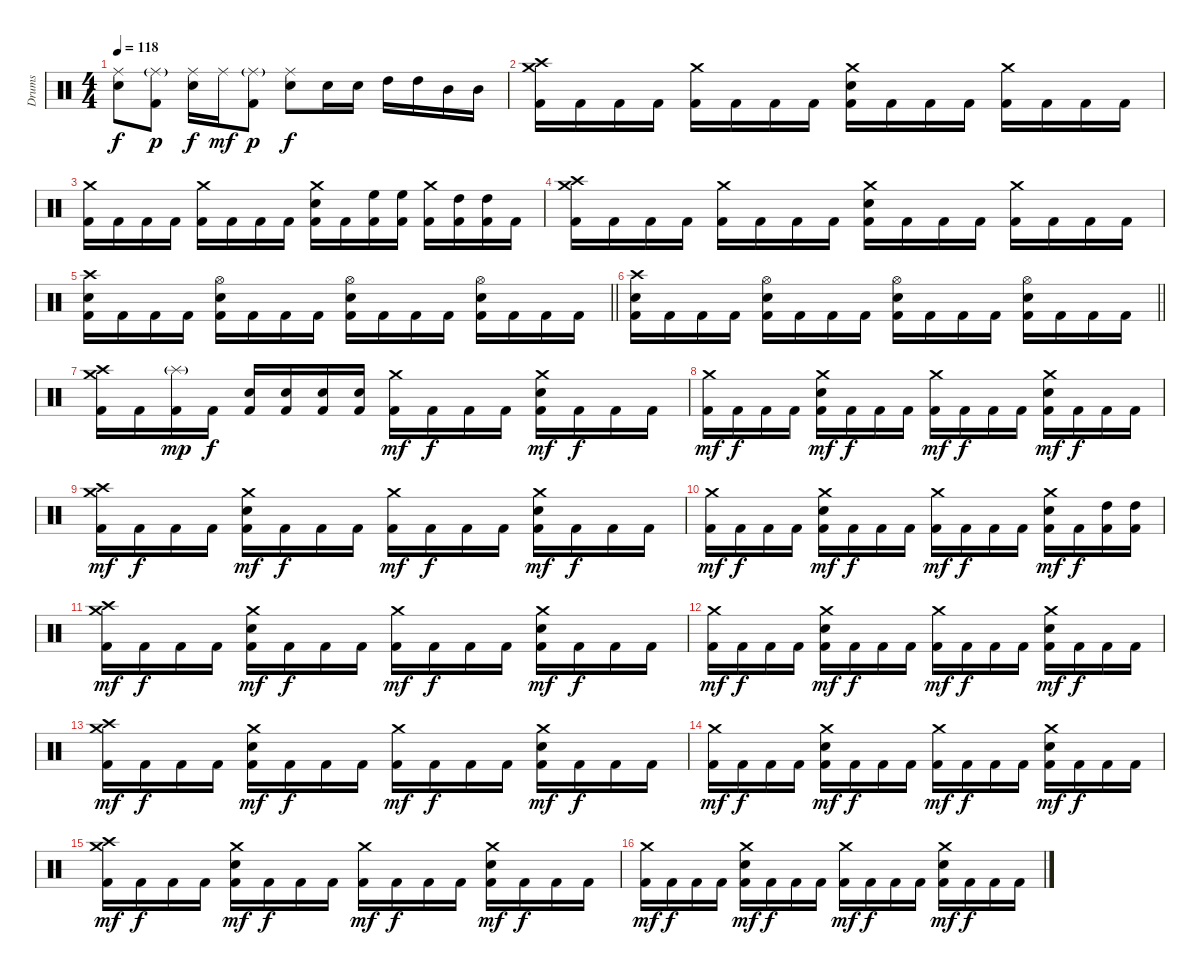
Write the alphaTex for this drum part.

\track ("Drums" "Drums") {instrument percussion}
\staff {score}
\articulation defaults
\ts (4 4)
\tempo 118
\clef neutral
\ks c
("Ride (middle)" "Electric Snare (hit)").8{dy f} ("Ride (middle)"{g} "Kick (hit) 2").8{dy p} ("Ride (middle)" "Electric Snare (hit)").16{dy f} "Ride (middle)".16{dy mf} ("Ride (middle)"{g} "Kick (hit) 2").8{dy p} ("Ride (middle)" "Electric Snare (hit)").8{dy f} "Electric Snare (hit)".16 "Electric Snare (hit)".16 "High Tom (hit)".16 "High Tom (hit)".16 "Mid Tom (hit)".16 "Mid Tom (hit)".16 |
("Crash high (hit)" "Crash medium (hit)" "Kick (hit) 2").16 "Kick (hit) 2".16 "Kick (hit) 2".16 "Kick (hit) 2".16 ("Crash medium (hit)" "Kick (hit) 2").16 "Kick (hit) 2".16 "Kick (hit) 2".16 "Kick (hit) 2".16 ("Crash medium (hit)" "Electric Snare (hit)" "Kick (hit) 2").16 "Kick (hit) 2".16 "Kick (hit) 2".16 "Kick (hit) 2".16 ("Crash medium (hit)" "Kick (hit) 2").16 "Kick (hit) 2".16 "Kick (hit) 2".16 "Kick (hit) 2".16 |
("Crash medium (hit)" "Kick (hit) 2").16 "Kick (hit) 2".16 "Kick (hit) 2".16 "Kick (hit) 2".16 ("Crash medium (hit)" "Kick (hit) 2").16 "Kick (hit) 2".16 "Kick (hit) 2".16 "Kick (hit) 2".16 ("Crash medium (hit)" "Electric Snare (hit)" "Kick (hit) 2").16 "Kick (hit) 2".16 ("High Floor Tom (hit)" "Kick (hit) 2").16 ("High Floor Tom (hit)" "Kick (hit) 2").16 ("Crash medium (hit)" "Kick (hit) 2").16 ("High Tom (hit)" "Kick (hit) 2").16 ("High Tom (hit)" "Kick (hit) 2").16 "Kick (hit) 2".16 |
("Crash high (hit)" "Crash medium (hit)" "Kick (hit) 2").16 "Kick (hit) 2".16 "Kick (hit) 2".16 "Kick (hit) 2".16 ("Crash medium (hit)" "Kick (hit) 2").16 "Kick (hit) 2".16 "Kick (hit) 2".16 "Kick (hit) 2".16 ("Crash medium (hit)" "Electric Snare (hit)" "Kick (hit) 2").16 "Kick (hit) 2".16 "Kick (hit) 2".16 "Kick (hit) 2".16 ("Crash medium (hit)" "Kick (hit) 2").16 "Kick (hit) 2".16 "Kick (hit) 2".16 "Kick (hit) 2".16 |
\barLineRight lightlight
("Crash high (hit)" "Electric Snare (hit)" "Kick (hit) 2").16 "Kick (hit) 2".16 "Kick (hit) 2".16 "Kick (hit) 2".16 ("Hi-Hat (open)" "Electric Snare (hit)" "Kick (hit) 2").16 "Kick (hit) 2".16 "Kick (hit) 2".16 "Kick (hit) 2".16 ("Hi-Hat (open)" "Electric Snare (hit)" "Kick (hit) 2").16 "Kick (hit) 2".16 "Kick (hit) 2".16 "Kick (hit) 2".16 ("Hi-Hat (open)" "Electric Snare (hit)" "Kick (hit) 2").16 "Kick (hit) 2".16 "Kick (hit) 2".16 "Kick (hit) 2".16 |
\barLineRight lightlight
("Crash high (hit)" "Electric Snare (hit)" "Kick (hit) 2").16 "Kick (hit) 2".16 "Kick (hit) 2".16 "Kick (hit) 2".16 ("Hi-Hat (open)" "Electric Snare (hit)" "Kick (hit) 2").16 "Kick (hit) 2".16 "Kick (hit) 2".16 "Kick (hit) 2".16 ("Hi-Hat (open)" "Electric Snare (hit)" "Kick (hit) 2").16 "Kick (hit) 2".16 "Kick (hit) 2".16 "Kick (hit) 2".16 ("Hi-Hat (open)" "Electric Snare (hit)" "Kick (hit) 2").16 "Kick (hit) 2".16 "Kick (hit) 2".16 "Kick (hit) 2".16 |
("Crash medium (hit)" "Crash high (hit)" "Kick (hit) 2").16 "Kick (hit) 2".16 ("Splash (hit)"{g} "Kick (hit) 2").16{dy mp} "Kick (hit) 2".16{dy f} ("Electric Snare (hit)" "Kick (hit) 2").16 ("Electric Snare (hit)" "Kick (hit) 2").16 ("Electric Snare (hit)" "Kick (hit) 2").16 ("Electric Snare (hit)" "Kick (hit) 2").16 ("Crash medium (hit)" "Kick (hit) 2").16{dy mf} "Kick (hit) 2".16{dy f} "Kick (hit) 2".16 "Kick (hit) 2".16 ("Crash medium (hit)" "Electric Snare (hit)" "Kick (hit) 2").16{dy mf} "Kick (hit) 2".16{dy f} "Kick (hit) 2".16 "Kick (hit) 2".16 |
("Crash medium (hit)" "Kick (hit) 2").16{dy mf} "Kick (hit) 2".16{dy f} "Kick (hit) 2".16 "Kick (hit) 2".16 ("Crash medium (hit)" "Electric Snare (hit)" "Kick (hit) 2").16{dy mf} "Kick (hit) 2".16{dy f} "Kick (hit) 2".16 "Kick (hit) 2".16 ("Crash medium (hit)" "Kick (hit) 2").16{dy mf} "Kick (hit) 2".16{dy f} "Kick (hit) 2".16 "Kick (hit) 2".16 ("Crash medium (hit)" "Electric Snare (hit)" "Kick (hit) 2").16{dy mf} "Kick (hit) 2".16{dy f} "Kick (hit) 2".16 "Kick (hit) 2".16 |
("Crash medium (hit)" "Crash high (hit)" "Kick (hit) 2").16{dy mf} "Kick (hit) 2".16{dy f} "Kick (hit) 2".16 "Kick (hit) 2".16 ("Crash medium (hit)" "Electric Snare (hit)" "Kick (hit) 2").16{dy mf} "Kick (hit) 2".16{dy f} "Kick (hit) 2".16 "Kick (hit) 2".16 ("Crash medium (hit)" "Kick (hit) 2").16{dy mf} "Kick (hit) 2".16{dy f} "Kick (hit) 2".16 "Kick (hit) 2".16 ("Crash medium (hit)" "Electric Snare (hit)" "Kick (hit) 2").16{dy mf} "Kick (hit) 2".16{dy f} "Kick (hit) 2".16 "Kick (hit) 2".16 |
("Crash medium (hit)" "Kick (hit) 2").16{dy mf} "Kick (hit) 2".16{dy f} "Kick (hit) 2".16 "Kick (hit) 2".16 ("Crash medium (hit)" "Electric Snare (hit)" "Kick (hit) 2").16{dy mf} "Kick (hit) 2".16{dy f} "Kick (hit) 2".16 "Kick (hit) 2".16 ("Crash medium (hit)" "Kick (hit) 2").16{dy mf} "Kick (hit) 2".16{dy f} "Kick (hit) 2".16 "Kick (hit) 2".16 ("Crash medium (hit)" "Electric Snare (hit)" "Kick (hit) 2").16{dy mf} "Kick (hit) 2".16{dy f} ("High Tom (hit)" "Kick (hit) 2").16 ("High Tom (hit)" "Kick (hit) 2").16 |
("Crash medium (hit)" "Crash high (hit)" "Kick (hit) 2").16{dy mf} "Kick (hit) 2".16{dy f} "Kick (hit) 2".16 "Kick (hit) 2".16 ("Crash medium (hit)" "Electric Snare (hit)" "Kick (hit) 2").16{dy mf} "Kick (hit) 2".16{dy f} "Kick (hit) 2".16 "Kick (hit) 2".16 ("Crash medium (hit)" "Kick (hit) 2").16{dy mf} "Kick (hit) 2".16{dy f} "Kick (hit) 2".16 "Kick (hit) 2".16 ("Crash medium (hit)" "Electric Snare (hit)" "Kick (hit) 2").16{dy mf} "Kick (hit) 2".16{dy f} "Kick (hit) 2".16 "Kick (hit) 2".16 |
("Crash medium (hit)" "Kick (hit) 2").16{dy mf} "Kick (hit) 2".16{dy f} "Kick (hit) 2".16 "Kick (hit) 2".16 ("Crash medium (hit)" "Electric Snare (hit)" "Kick (hit) 2").16{dy mf} "Kick (hit) 2".16{dy f} "Kick (hit) 2".16 "Kick (hit) 2".16 ("Crash medium (hit)" "Kick (hit) 2").16{dy mf} "Kick (hit) 2".16{dy f} "Kick (hit) 2".16 "Kick (hit) 2".16 ("Crash medium (hit)" "Electric Snare (hit)" "Kick (hit) 2").16{dy mf} "Kick (hit) 2".16{dy f} "Kick (hit) 2".16 "Kick (hit) 2".16 |
("Crash medium (hit)" "Crash high (hit)" "Kick (hit) 2").16{dy mf} "Kick (hit) 2".16{dy f} "Kick (hit) 2".16 "Kick (hit) 2".16 ("Crash medium (hit)" "Electric Snare (hit)" "Kick (hit) 2").16{dy mf} "Kick (hit) 2".16{dy f} "Kick (hit) 2".16 "Kick (hit) 2".16 ("Crash medium (hit)" "Kick (hit) 2").16{dy mf} "Kick (hit) 2".16{dy f} "Kick (hit) 2".16 "Kick (hit) 2".16 ("Crash medium (hit)" "Electric Snare (hit)" "Kick (hit) 2").16{dy mf} "Kick (hit) 2".16{dy f} "Kick (hit) 2".16 "Kick (hit) 2".16 |
("Crash medium (hit)" "Kick (hit) 2").16{dy mf} "Kick (hit) 2".16{dy f} "Kick (hit) 2".16 "Kick (hit) 2".16 ("Crash medium (hit)" "Electric Snare (hit)" "Kick (hit) 2").16{dy mf} "Kick (hit) 2".16{dy f} "Kick (hit) 2".16 "Kick (hit) 2".16 ("Crash medium (hit)" "Kick (hit) 2").16{dy mf} "Kick (hit) 2".16{dy f} "Kick (hit) 2".16 "Kick (hit) 2".16 ("Crash medium (hit)" "Electric Snare (hit)" "Kick (hit) 2").16{dy mf} "Kick (hit) 2".16{dy f} "Kick (hit) 2".16 "Kick (hit) 2".16 |
("Crash medium (hit)" "Crash high (hit)" "Kick (hit) 2").16{dy mf} "Kick (hit) 2".16{dy f} "Kick (hit) 2".16 "Kick (hit) 2".16 ("Crash medium (hit)" "Electric Snare (hit)" "Kick (hit) 2").16{dy mf} "Kick (hit) 2".16{dy f} "Kick (hit) 2".16 "Kick (hit) 2".16 ("Crash medium (hit)" "Kick (hit) 2").16{dy mf} "Kick (hit) 2".16{dy f} "Kick (hit) 2".16 "Kick (hit) 2".16 ("Crash medium (hit)" "Electric Snare (hit)" "Kick (hit) 2").16{dy mf} "Kick (hit) 2".16{dy f} "Kick (hit) 2".16 "Kick (hit) 2".16 |
("Crash medium (hit)" "Kick (hit) 2").16{dy mf} "Kick (hit) 2".16{dy f} "Kick (hit) 2".16 "Kick (hit) 2".16 ("Crash medium (hit)" "Electric Snare (hit)" "Kick (hit) 2").16{dy mf} "Kick (hit) 2".16{dy f} "Kick (hit) 2".16 "Kick (hit) 2".16 ("Crash medium (hit)" "Kick (hit) 2").16{dy mf} "Kick (hit) 2".16{dy f} "Kick (hit) 2".16 "Kick (hit) 2".16 ("Crash medium (hit)" "Electric Snare (hit)" "Kick (hit) 2").16{dy mf} "Kick (hit) 2".16{dy f} "Kick (hit) 2".16 "Kick (hit) 2".16
